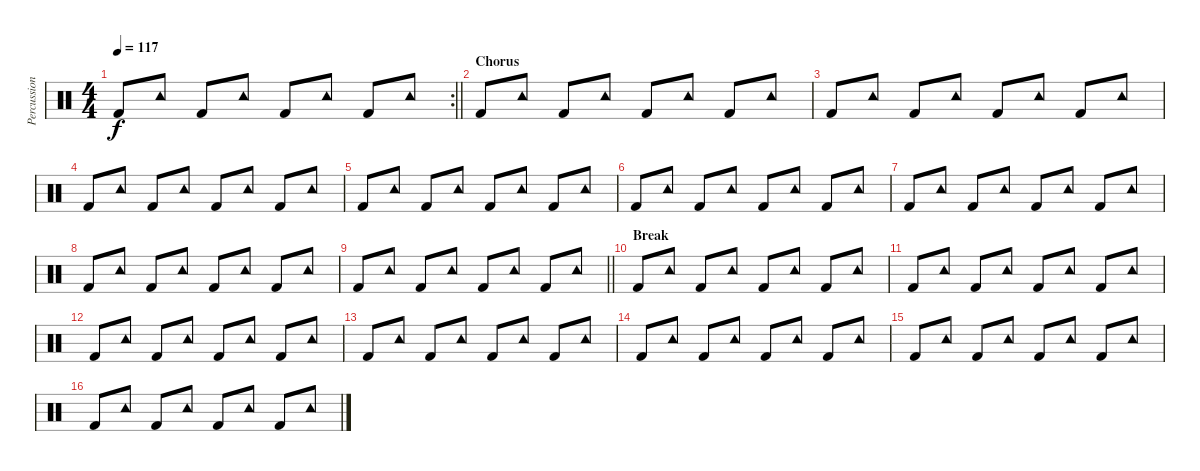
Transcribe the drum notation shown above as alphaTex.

\track ("Percussion" "Percussion") {instrument percussion}
\staff {score}
\articulation defaults
\rc 2
\ts (4 4)
\tempo 117
\clef neutral
\barLineRight lightlight
\ks c "Kick (hit) 2".8{dy f} "Tambourine (hit)".8 "Kick (hit) 2".8 "Tambourine (hit)".8 "Kick (hit) 2".8 "Tambourine (hit)".8 "Kick (hit) 2".8 "Tambourine (hit)".8
|
\section ("" "Chorus")
"Kick (hit) 2".8 "Tambourine (hit)".8 "Kick (hit) 2".8 "Tambourine (hit)".8 "Kick (hit) 2".8 "Tambourine (hit)".8 "Kick (hit) 2".8 "Tambourine (hit)".8 |
"Kick (hit) 2".8 "Tambourine (hit)".8 "Kick (hit) 2".8 "Tambourine (hit)".8 "Kick (hit) 2".8 "Tambourine (hit)".8 "Kick (hit) 2".8 "Tambourine (hit)".8 |
"Kick (hit) 2".8 "Tambourine (hit)".8 "Kick (hit) 2".8 "Tambourine (hit)".8 "Kick (hit) 2".8 "Tambourine (hit)".8 "Kick (hit) 2".8 "Tambourine (hit)".8 |
"Kick (hit) 2".8 "Tambourine (hit)".8 "Kick (hit) 2".8 "Tambourine (hit)".8 "Kick (hit) 2".8 "Tambourine (hit)".8 "Kick (hit) 2".8 "Tambourine (hit)".8 |
"Kick (hit) 2".8 "Tambourine (hit)".8 "Kick (hit) 2".8 "Tambourine (hit)".8 "Kick (hit) 2".8 "Tambourine (hit)".8 "Kick (hit) 2".8 "Tambourine (hit)".8 |
"Kick (hit) 2".8 "Tambourine (hit)".8 "Kick (hit) 2".8 "Tambourine (hit)".8 "Kick (hit) 2".8 "Tambourine (hit)".8 "Kick (hit) 2".8 "Tambourine (hit)".8 |
"Kick (hit) 2".8 "Tambourine (hit)".8 "Kick (hit) 2".8 "Tambourine (hit)".8 "Kick (hit) 2".8 "Tambourine (hit)".8 "Kick (hit) 2".8 "Tambourine (hit)".8 |
\barLineRight lightlight "Kick (hit) 2".8 "Tambourine (hit)".8 "Kick (hit) 2".8 "Tambourine (hit)".8 "Kick (hit) 2".8 "Tambourine (hit)".8 "Kick (hit) 2".8 "Tambourine (hit)".8
|
\section ("" "Break")
"Kick (hit) 2".8 "Tambourine (hit)".8 "Kick (hit) 2".8 "Tambourine (hit)".8 "Kick (hit) 2".8 "Tambourine (hit)".8 "Kick (hit) 2".8 "Tambourine (hit)".8 |
"Kick (hit) 2".8 "Tambourine (hit)".8 "Kick (hit) 2".8 "Tambourine (hit)".8 "Kick (hit) 2".8 "Tambourine (hit)".8 "Kick (hit) 2".8 "Tambourine (hit)".8 |
"Kick (hit) 2".8 "Tambourine (hit)".8 "Kick (hit) 2".8 "Tambourine (hit)".8 "Kick (hit) 2".8 "Tambourine (hit)".8 "Kick (hit) 2".8 "Tambourine (hit)".8 |
"Kick (hit) 2".8 "Tambourine (hit)".8 "Kick (hit) 2".8 "Tambourine (hit)".8 "Kick (hit) 2".8 "Tambourine (hit)".8 "Kick (hit) 2".8 "Tambourine (hit)".8 |
"Kick (hit) 2".8 "Tambourine (hit)".8 "Kick (hit) 2".8 "Tambourine (hit)".8 "Kick (hit) 2".8 "Tambourine (hit)".8 "Kick (hit) 2".8 "Tambourine (hit)".8 |
"Kick (hit) 2".8 "Tambourine (hit)".8 "Kick (hit) 2".8 "Tambourine (hit)".8 "Kick (hit) 2".8 "Tambourine (hit)".8 "Kick (hit) 2".8 "Tambourine (hit)".8 |
"Kick (hit) 2".8 "Tambourine (hit)".8 "Kick (hit) 2".8 "Tambourine (hit)".8 "Kick (hit) 2".8 "Tambourine (hit)".8 "Kick (hit) 2".8 "Tambourine (hit)".8
